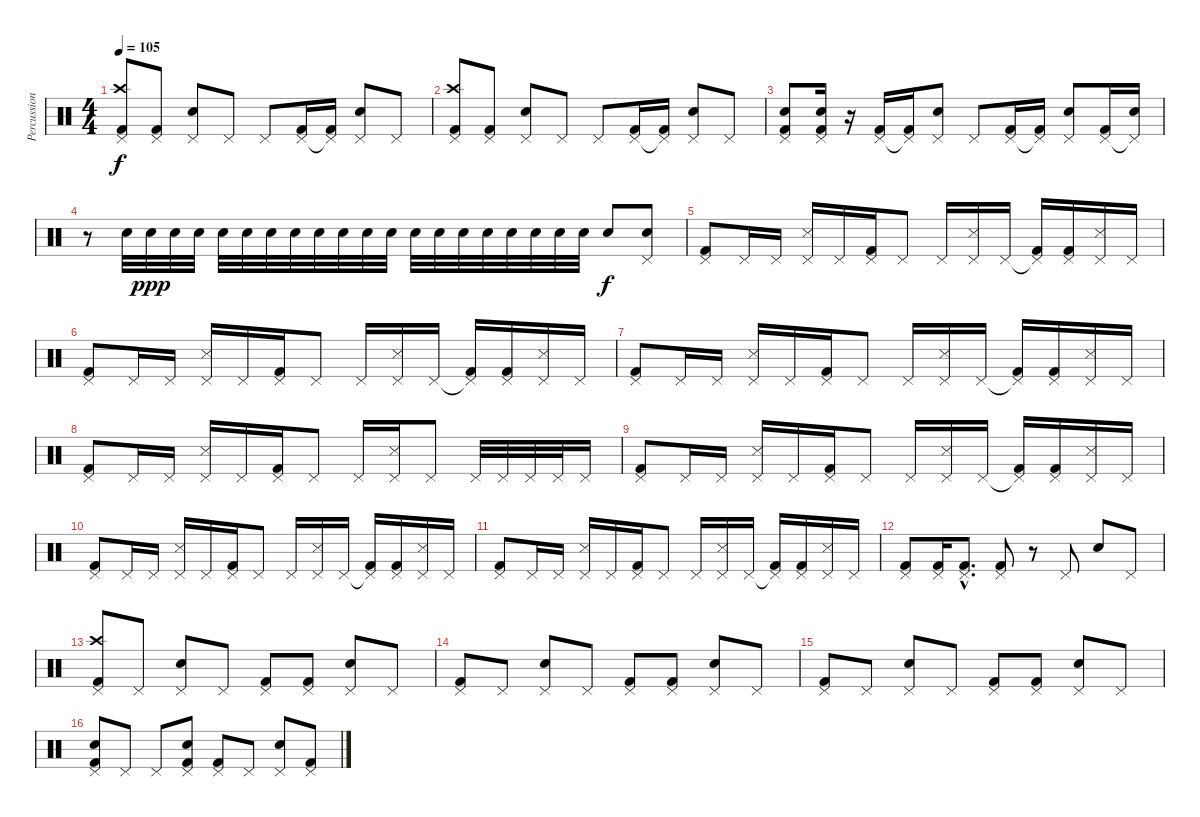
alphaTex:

\track ("Percussion" "Percussion") {instrument percussion}
\staff {score}
\articulation defaults
\ts (4 4)
\tempo 105
\clef neutral
\ks c
("Pedal Hi-Hat (hit)" "Crash high (hit)" "Kick (hit) 2").8{dy f} ("Pedal Hi-Hat (hit)" "Kick (hit) 2").8 ("Pedal Hi-Hat (hit)" "Snare (hit) 2").8 "Pedal Hi-Hat (hit)".8 "Pedal Hi-Hat (hit)".8 ("Pedal Hi-Hat (hit)" "Kick (hit) 2").16 ("Pedal Hi-Hat (hit)"{t} "Kick (hit) 2").16 ("Pedal Hi-Hat (hit)" "Snare (hit) 2").8 "Pedal Hi-Hat (hit)".8 |
("Pedal Hi-Hat (hit)" "Crash high (hit)" "Kick (hit) 2").8 ("Pedal Hi-Hat (hit)" "Kick (hit) 2").8 ("Pedal Hi-Hat (hit)" "Snare (hit) 2").8 "Pedal Hi-Hat (hit)".8 "Pedal Hi-Hat (hit)".8 ("Pedal Hi-Hat (hit)" "Kick (hit) 2").16 ("Pedal Hi-Hat (hit)"{t} "Kick (hit) 2").16 ("Pedal Hi-Hat (hit)" "Snare (hit) 2").8 "Pedal Hi-Hat (hit)".8 |
("Pedal Hi-Hat (hit)" "Snare (hit) 2" "Kick (hit) 2").8 ("Pedal Hi-Hat (hit)" "Snare (hit) 2" "Kick (hit) 2").16 r.16 ("Pedal Hi-Hat (hit)" "Kick (hit) 2").16 ("Pedal Hi-Hat (hit)"{t} "Kick (hit) 2").16 ("Pedal Hi-Hat (hit)" "Snare (hit) 2").8 "Pedal Hi-Hat (hit)".8 ("Pedal Hi-Hat (hit)" "Kick (hit) 2").16 ("Pedal Hi-Hat (hit)"{t} "Kick (hit) 2").16 ("Pedal Hi-Hat (hit)" "Snare (hit) 2").8 ("Pedal Hi-Hat (hit)" "Kick (hit) 2").16 ("Pedal Hi-Hat (hit)"{t} "Snare (hit) 2").16 |
r.8 "Snare (hit) 2".32 "Snare (hit) 2".32{dy ppp} "Snare (hit) 2".32 "Snare (hit) 2".32 "Snare (hit) 2".32 "Snare (hit) 2".32 "Snare (hit) 2".32 "Snare (hit) 2".32 "Snare (hit) 2".32 "Snare (hit) 2".32 "Snare (hit) 2".32 "Snare (hit) 2".32 "Snare (hit) 2".32 "Snare (hit) 2".32 "Snare (hit) 2".32 "Snare (hit) 2".32 "Snare (hit) 2".32 "Snare (hit) 2".32 "Snare (hit) 2".32 "Snare (hit) 2".32 "Snare (hit) 2".8{dy f} ("Pedal Hi-Hat (hit)" "Snare (hit) 2").8 |
("Pedal Hi-Hat (hit)" "Kick (hit) 2").8{volume 12} "Pedal Hi-Hat (hit)".16 "Pedal Hi-Hat (hit)".16 ("Pedal Hi-Hat (hit)" "Snare (side stick) 3").16 "Pedal Hi-Hat (hit)".16 ("Pedal Hi-Hat (hit)" "Kick (hit) 2").16 "Pedal Hi-Hat (hit)".8 "Pedal Hi-Hat (hit)".16 ("Pedal Hi-Hat (hit)" "Snare (side stick) 3").16 "Pedal Hi-Hat (hit)".16 ("Pedal Hi-Hat (hit)"{t} "Kick (hit) 2").16 ("Pedal Hi-Hat (hit)" "Kick (hit) 2").16 ("Pedal Hi-Hat (hit)" "Snare (side stick) 3").16 "Pedal Hi-Hat (hit)".16 |
("Pedal Hi-Hat (hit)" "Kick (hit) 2").8 "Pedal Hi-Hat (hit)".16 "Pedal Hi-Hat (hit)".16 ("Pedal Hi-Hat (hit)" "Snare (side stick) 3").16 "Pedal Hi-Hat (hit)".16 ("Pedal Hi-Hat (hit)" "Kick (hit) 2").16 "Pedal Hi-Hat (hit)".8 "Pedal Hi-Hat (hit)".16 ("Pedal Hi-Hat (hit)" "Snare (side stick) 3").16 "Pedal Hi-Hat (hit)".16 ("Pedal Hi-Hat (hit)"{t} "Kick (hit) 2").16 ("Pedal Hi-Hat (hit)" "Kick (hit) 2").16 ("Pedal Hi-Hat (hit)" "Snare (side stick) 3").16 "Pedal Hi-Hat (hit)".16 |
("Pedal Hi-Hat (hit)" "Kick (hit) 2").8 "Pedal Hi-Hat (hit)".16 "Pedal Hi-Hat (hit)".16 ("Pedal Hi-Hat (hit)" "Snare (side stick) 3").16 "Pedal Hi-Hat (hit)".16 ("Pedal Hi-Hat (hit)" "Kick (hit) 2").16 "Pedal Hi-Hat (hit)".8 "Pedal Hi-Hat (hit)".16 ("Pedal Hi-Hat (hit)" "Snare (side stick) 3").16 "Pedal Hi-Hat (hit)".16 ("Pedal Hi-Hat (hit)"{t} "Kick (hit) 2").16 ("Pedal Hi-Hat (hit)" "Kick (hit) 2").16 ("Pedal Hi-Hat (hit)" "Snare (side stick) 3").16 "Pedal Hi-Hat (hit)".16 |
("Pedal Hi-Hat (hit)" "Kick (hit) 2").8 "Pedal Hi-Hat (hit)".16 "Pedal Hi-Hat (hit)".16 ("Pedal Hi-Hat (hit)" "Snare (side stick) 3").16 "Pedal Hi-Hat (hit)".16 ("Pedal Hi-Hat (hit)" "Kick (hit) 2").16 "Pedal Hi-Hat (hit)".8 "Pedal Hi-Hat (hit)".16 ("Pedal Hi-Hat (hit)" "Snare (side stick) 3").16 "Pedal Hi-Hat (hit)".8 "Pedal Hi-Hat (hit)".32 "Pedal Hi-Hat (hit)".32 "Pedal Hi-Hat (hit)".32 "Pedal Hi-Hat (hit)".32 "Pedal Hi-Hat (hit)".16 |
("Pedal Hi-Hat (hit)" "Kick (hit) 2").8 "Pedal Hi-Hat (hit)".16 "Pedal Hi-Hat (hit)".16 ("Pedal Hi-Hat (hit)" "Snare (side stick) 3").16 "Pedal Hi-Hat (hit)".16 ("Pedal Hi-Hat (hit)" "Kick (hit) 2").16 "Pedal Hi-Hat (hit)".8 "Pedal Hi-Hat (hit)".16 ("Pedal Hi-Hat (hit)" "Snare (side stick) 3").16 "Pedal Hi-Hat (hit)".16 ("Pedal Hi-Hat (hit)"{t} "Kick (hit) 2").16 ("Pedal Hi-Hat (hit)" "Kick (hit) 2").16 ("Pedal Hi-Hat (hit)" "Snare (side stick) 3").16 "Pedal Hi-Hat (hit)".16 |
("Pedal Hi-Hat (hit)" "Kick (hit) 2").8 "Pedal Hi-Hat (hit)".16 "Pedal Hi-Hat (hit)".16 ("Pedal Hi-Hat (hit)" "Snare (side stick) 3").16 "Pedal Hi-Hat (hit)".16 ("Pedal Hi-Hat (hit)" "Kick (hit) 2").16 "Pedal Hi-Hat (hit)".8 "Pedal Hi-Hat (hit)".16 ("Pedal Hi-Hat (hit)" "Snare (side stick) 3").16 "Pedal Hi-Hat (hit)".16 ("Pedal Hi-Hat (hit)"{t} "Kick (hit) 2").16 ("Pedal Hi-Hat (hit)" "Kick (hit) 2").16 ("Pedal Hi-Hat (hit)" "Snare (side stick) 3").16 "Pedal Hi-Hat (hit)".16 |
("Pedal Hi-Hat (hit)" "Kick (hit) 2").8 "Pedal Hi-Hat (hit)".16 "Pedal Hi-Hat (hit)".16 ("Pedal Hi-Hat (hit)" "Snare (side stick) 3").16 "Pedal Hi-Hat (hit)".16 ("Pedal Hi-Hat (hit)" "Kick (hit) 2").16 "Pedal Hi-Hat (hit)".8 "Pedal Hi-Hat (hit)".16 ("Pedal Hi-Hat (hit)" "Snare (side stick) 3").16 "Pedal Hi-Hat (hit)".16 ("Pedal Hi-Hat (hit)"{t} "Kick (hit) 2").16 ("Pedal Hi-Hat (hit)" "Kick (hit) 2").16 ("Pedal Hi-Hat (hit)" "Snare (side stick) 3").16 "Pedal Hi-Hat (hit)".16 |
("Pedal Hi-Hat (hit)" "Kick (hit) 2").8{volume 14} ("Pedal Hi-Hat (hit)" "Kick (hit) 2").16 ("Pedal Hi-Hat (hit)"{hac} "Kick (hit) 2"{hac}).8{d} ("Pedal Hi-Hat (hit)" "Kick (hit) 2").8 r.8 "Pedal Hi-Hat (hit)".8 "Snare (hit) 2".8 "Pedal Hi-Hat (hit)".8 |
("Pedal Hi-Hat (hit)" "Crash high (hit)" "Kick (hit) 2").8 "Pedal Hi-Hat (hit)".8 ("Pedal Hi-Hat (hit)" "Snare (hit) 2").8 "Pedal Hi-Hat (hit)".8 ("Pedal Hi-Hat (hit)" "Kick (hit) 2").8 ("Pedal Hi-Hat (hit)" "Kick (hit) 2").8 ("Pedal Hi-Hat (hit)" "Snare (hit) 2").8 "Pedal Hi-Hat (hit)".8 |
("Pedal Hi-Hat (hit)" "Kick (hit) 2").8 "Pedal Hi-Hat (hit)".8 ("Pedal Hi-Hat (hit)" "Snare (hit) 2").8 "Pedal Hi-Hat (hit)".8 ("Pedal Hi-Hat (hit)" "Kick (hit) 2").8 ("Pedal Hi-Hat (hit)" "Kick (hit) 2").8 ("Pedal Hi-Hat (hit)" "Snare (hit) 2").8 "Pedal Hi-Hat (hit)".8 |
("Pedal Hi-Hat (hit)" "Kick (hit) 2").8 "Pedal Hi-Hat (hit)".8 ("Pedal Hi-Hat (hit)" "Snare (hit) 2").8 "Pedal Hi-Hat (hit)".8 ("Pedal Hi-Hat (hit)" "Kick (hit) 2").8 ("Pedal Hi-Hat (hit)" "Kick (hit) 2").8 ("Pedal Hi-Hat (hit)" "Snare (hit) 2").8 "Pedal Hi-Hat (hit)".8 |
("Pedal Hi-Hat (hit)" "Snare (hit) 2" "Kick (hit) 2").8 "Pedal Hi-Hat (hit)".8 "Pedal Hi-Hat (hit)".8 ("Pedal Hi-Hat (hit)" "Snare (hit) 2" "Kick (hit) 2").8 ("Pedal Hi-Hat (hit)" "Kick (hit) 2").8 "Pedal Hi-Hat (hit)".8 ("Pedal Hi-Hat (hit)" "Snare (hit) 2").8 ("Pedal Hi-Hat (hit)" "Kick (hit) 2").8
